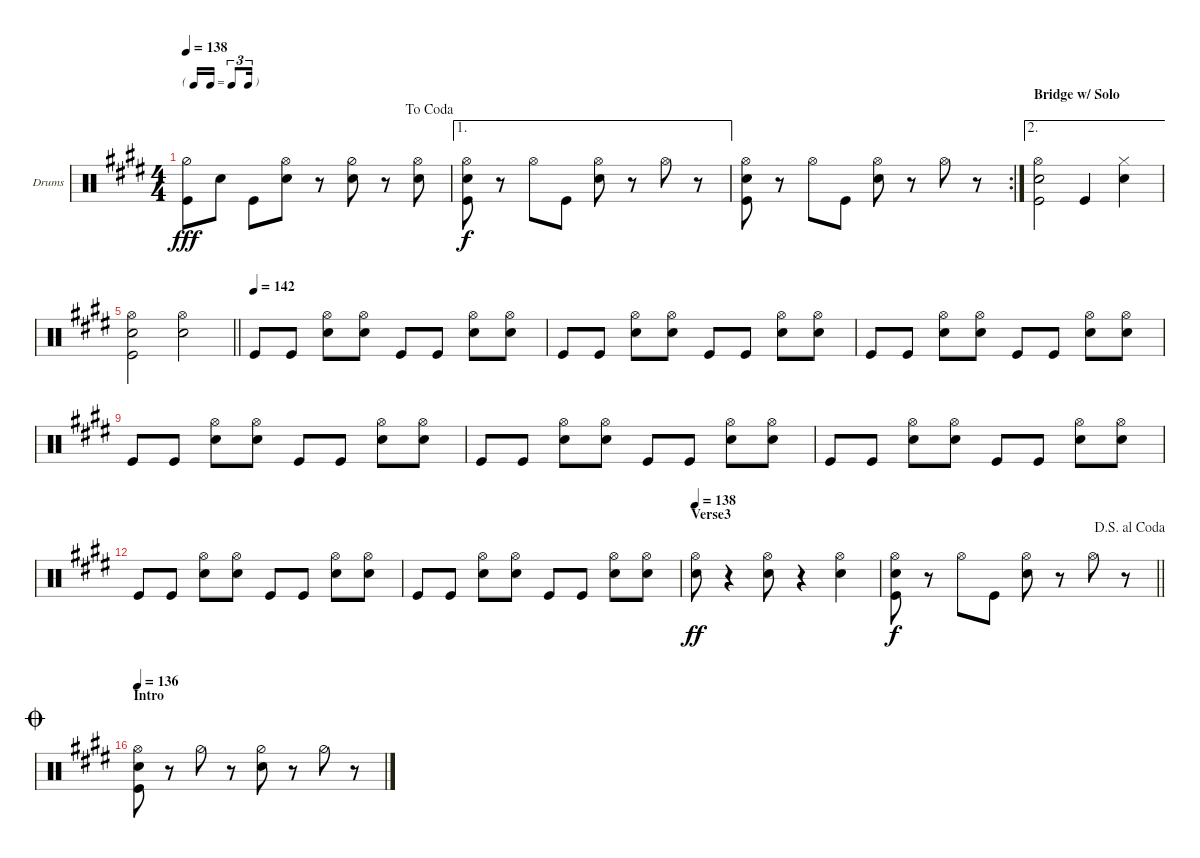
\bracketExtendMode nobrackets
\firstSystemTrackNameOrientation horizontal
\otherSystemsTrackNameOrientation horizontal
\defaultBarNumberDisplay FirstOfSystem
\track ("Drumkit" "Drums") {instrument percussion}
\staff {score}
\articulation defaults
\ts (4 4)
\tf triplet16th
\jump dacoda
\tempo 138
\clef neutral
\ks c#minor
("Kick (hit)" "Hi-Hat (half)").8{dy fff} "Snare (hit) 2".8 "Kick (hit)".8 ("Snare (hit) 2" "Hi-Hat (open)").8 r.8 ("Snare (hit) 2" "Hi-Hat (half)").8 r.8 ("Snare (hit) 2" "Hi-Hat (open)").8 |
\ae 1
\ks e
("Hi-Hat (open)" "Snare (hit) 2" "Kick (hit)").8{dy f} r.8 "Hi-Hat (open)".8 "Kick (hit)".8 ("Snare (hit) 2" "Hi-Hat (open)").8 r.8 "Hi-Hat (open)".8 r.8 |
\rc 2
\ks c#minor
("Hi-Hat (open)" "Snare (hit) 2" "Kick (hit)").8 r.8 "Hi-Hat (open)".8 "Kick (hit)".8 ("Snare (hit) 2" "Hi-Hat (open)").8 r.8 "Hi-Hat (open)".8 r.8 |
\ae 2
\section ("" "Bridge w/ Solo")
\ks e
("Kick (hit)" "Snare (hit) 2" "Hi-Hat (open)").2 "Kick (hit)".4 ("Snare (hit) 2" "Hi-Hat (closed)").4 |
\barLineRight lightlight
\ks c#minor
("Kick (hit)" "Hi-Hat (open)" "Snare (hit) 2").2 ("Snare (hit) 2" "Hi-Hat (open)").2 |
\tempo 142
\ks e "Kick (hit)".8 "Kick (hit)".8
("Hi-Hat (open)" "Snare (hit) 2").8 ("Snare (hit) 2" "Hi-Hat (open)").8 "Kick (hit)".8 "Kick (hit)".8 ("Snare (hit) 2" "Hi-Hat (open)").8 ("Snare (hit) 2" "Hi-Hat (open)").8 |
\ks c#minor "Kick (hit)".8 "Kick (hit)".8
("Hi-Hat (open)" "Snare (hit) 2").8 ("Snare (hit) 2" "Hi-Hat (open)").8 "Kick (hit)".8 "Kick (hit)".8 ("Snare (hit) 2" "Hi-Hat (open)").8 ("Snare (hit) 2" "Hi-Hat (open)").8 |
"Kick (hit)".8 "Kick (hit)".8 ("Hi-Hat (open)" "Snare (hit) 2").8 ("Snare (hit) 2" "Hi-Hat (open)").8 "Kick (hit)".8 "Kick (hit)".8 ("Snare (hit) 2" "Hi-Hat (open)").8 ("Snare (hit) 2" "Hi-Hat (open)").8 |
"Kick (hit)".8 "Kick (hit)".8 ("Hi-Hat (open)" "Snare (hit) 2").8 ("Snare (hit) 2" "Hi-Hat (open)").8 "Kick (hit)".8 "Kick (hit)".8 ("Snare (hit) 2" "Hi-Hat (open)").8 ("Snare (hit) 2" "Hi-Hat (open)").8 |
\ks e "Kick (hit)".8 "Kick (hit)".8
("Hi-Hat (open)" "Snare (hit) 2").8 ("Snare (hit) 2" "Hi-Hat (open)").8 "Kick (hit)".8 "Kick (hit)".8 ("Snare (hit) 2" "Hi-Hat (open)").8 ("Snare (hit) 2" "Hi-Hat (open)").8 |
\ks c#minor "Kick (hit)".8 "Kick (hit)".8
("Hi-Hat (open)" "Snare (hit) 2").8 ("Snare (hit) 2" "Hi-Hat (open)").8 "Kick (hit)".8 "Kick (hit)".8 ("Snare (hit) 2" "Hi-Hat (open)").8 ("Snare (hit) 2" "Hi-Hat (open)").8 |
"Kick (hit)".8 "Kick (hit)".8 ("Hi-Hat (open)" "Snare (hit) 2").8 ("Snare (hit) 2" "Hi-Hat (open)").8 "Kick (hit)".8 "Kick (hit)".8 ("Snare (hit) 2" "Hi-Hat (open)").8 ("Snare (hit) 2" "Hi-Hat (open)").8 |
"Kick (hit)".8 "Kick (hit)".8 ("Hi-Hat (open)" "Snare (hit) 2").8 ("Snare (hit) 2" "Hi-Hat (open)").8 "Kick (hit)".8 "Kick (hit)".8 ("Snare (hit) 2" "Hi-Hat (open)").8 ("Snare (hit) 2" "Hi-Hat (open)").8 |
\section ("" "Verse3")
\tempo 138
\ks e
("Snare (hit) 2" "Hi-Hat (open)").8{dy ff} r.4 ("Snare (hit) 2" "Hi-Hat (open)").8 r.4 ("Hi-Hat (open)" "Snare (hit) 2").4 |
\jump dalsegnoalcoda
\barLineRight lightlight
\ks c#minor
("Hi-Hat (open)" "Snare (hit) 2" "Kick (hit)").8{dy f} r.8 "Hi-Hat (open)".8 "Kick (hit)".8 ("Snare (hit) 2" "Hi-Hat (open)").8 r.8 "Hi-Hat (open)".8 r.8 |
\section ("" "Intro")
\jump coda
\tempo 136
\ks e
("Hi-Hat (open)" "Snare (hit) 2" "Kick (hit)").8 r.8 "Hi-Hat (half)".8 r.8 ("Snare (hit) 2" "Hi-Hat (half)").8 r.8 "Hi-Hat (half)".8 r.8
